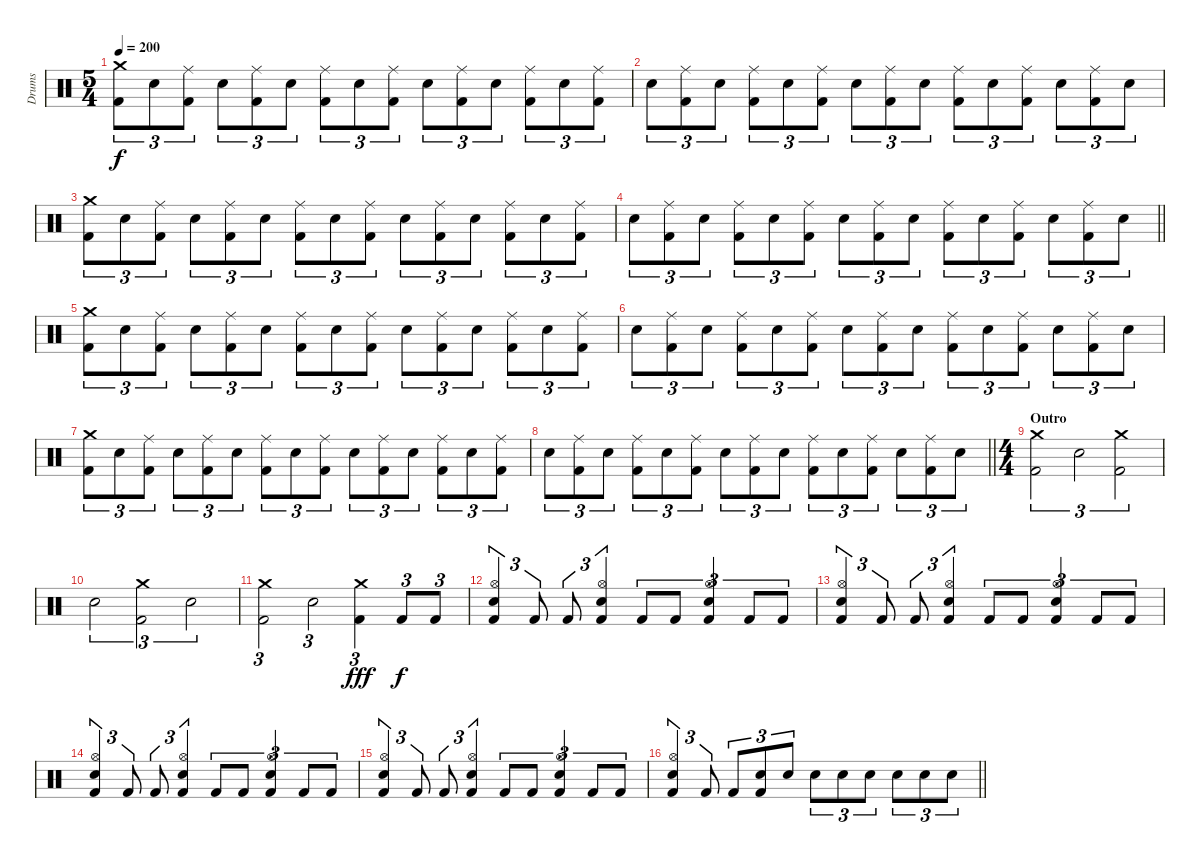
\track ("Drums" "Drums") {instrument percussion}
\staff {score}
\articulation defaults
\ts (5 4)
\tempo 200
\clef neutral
\ks c
("Crash medium (hit)" "Kick (hit) 2").8{tu (3 2) dy f} "Electric Snare (hit)".8{tu (3 2)} ("Ride (middle)" "Kick (hit) 2").8{tu (3 2)} "Electric Snare (hit)".8{tu (3 2)} ("Ride (middle)" "Kick (hit) 2").8{tu (3 2)} "Electric Snare (hit)".8{tu (3 2)} ("Ride (middle)" "Kick (hit) 2").8{tu (3 2)} "Electric Snare (hit)".8{tu (3 2)} ("Ride (middle)" "Kick (hit) 2").8{tu (3 2)} "Electric Snare (hit)".8{tu (3 2)} ("Ride (middle)" "Kick (hit) 2").8{tu (3 2)} "Electric Snare (hit)".8{tu (3 2)} ("Ride (middle)" "Kick (hit) 2").8{tu (3 2)} "Electric Snare (hit)".8{tu (3 2)} ("Ride (middle)" "Kick (hit) 2").8{tu (3 2)} |
"Electric Snare (hit)".8{tu (3 2)} ("Ride (middle)" "Kick (hit) 2").8{tu (3 2)} "Electric Snare (hit)".8{tu (3 2)} ("Ride (middle)" "Kick (hit) 2").8{tu (3 2)} "Electric Snare (hit)".8{tu (3 2)} ("Ride (middle)" "Kick (hit) 2").8{tu (3 2)} "Electric Snare (hit)".8{tu (3 2)} ("Ride (middle)" "Kick (hit) 2").8{tu (3 2)} "Electric Snare (hit)".8{tu (3 2)} ("Ride (middle)" "Kick (hit) 2").8{tu (3 2)} "Electric Snare (hit)".8{tu (3 2)} ("Ride (middle)" "Kick (hit) 2").8{tu (3 2)} "Electric Snare (hit)".8{tu (3 2)} ("Ride (middle)" "Kick (hit) 2").8{tu (3 2)} "Electric Snare (hit)".8{tu (3 2)} |
("Crash medium (hit)" "Kick (hit) 2").8{tu (3 2)} "Electric Snare (hit)".8{tu (3 2)} ("Ride (middle)" "Kick (hit) 2").8{tu (3 2)} "Electric Snare (hit)".8{tu (3 2)} ("Ride (middle)" "Kick (hit) 2").8{tu (3 2)} "Electric Snare (hit)".8{tu (3 2)} ("Ride (middle)" "Kick (hit) 2").8{tu (3 2)} "Electric Snare (hit)".8{tu (3 2)} ("Ride (middle)" "Kick (hit) 2").8{tu (3 2)} "Electric Snare (hit)".8{tu (3 2)} ("Ride (middle)" "Kick (hit) 2").8{tu (3 2)} "Electric Snare (hit)".8{tu (3 2)} ("Ride (middle)" "Kick (hit) 2").8{tu (3 2)} "Electric Snare (hit)".8{tu (3 2)} ("Ride (middle)" "Kick (hit) 2").8{tu (3 2)} |
\barLineRight lightlight "Electric Snare (hit)".8{tu (3 2)}
("Ride (middle)" "Kick (hit) 2").8{tu (3 2)} "Electric Snare (hit)".8{tu (3 2)} ("Ride (middle)" "Kick (hit) 2").8{tu (3 2)} "Electric Snare (hit)".8{tu (3 2)} ("Ride (middle)" "Kick (hit) 2").8{tu (3 2)} "Electric Snare (hit)".8{tu (3 2)} ("Ride (middle)" "Kick (hit) 2").8{tu (3 2)} "Electric Snare (hit)".8{tu (3 2)} ("Ride (middle)" "Kick (hit) 2").8{tu (3 2)} "Electric Snare (hit)".8{tu (3 2)} ("Ride (middle)" "Kick (hit) 2").8{tu (3 2)} "Electric Snare (hit)".8{tu (3 2)} ("Ride (middle)" "Kick (hit) 2").8{tu (3 2)} "Electric Snare (hit)".8{tu (3 2)} |
("Crash medium (hit)" "Kick (hit) 2").8{tu (3 2)} "Electric Snare (hit)".8{tu (3 2)} ("Ride (middle)" "Kick (hit) 2").8{tu (3 2)} "Electric Snare (hit)".8{tu (3 2)} ("Ride (middle)" "Kick (hit) 2").8{tu (3 2)} "Electric Snare (hit)".8{tu (3 2)} ("Ride (middle)" "Kick (hit) 2").8{tu (3 2)} "Electric Snare (hit)".8{tu (3 2)} ("Ride (middle)" "Kick (hit) 2").8{tu (3 2)} "Electric Snare (hit)".8{tu (3 2)} ("Ride (middle)" "Kick (hit) 2").8{tu (3 2)} "Electric Snare (hit)".8{tu (3 2)} ("Ride (middle)" "Kick (hit) 2").8{tu (3 2)} "Electric Snare (hit)".8{tu (3 2)} ("Ride (middle)" "Kick (hit) 2").8{tu (3 2)} |
"Electric Snare (hit)".8{tu (3 2)} ("Ride (middle)" "Kick (hit) 2").8{tu (3 2)} "Electric Snare (hit)".8{tu (3 2)} ("Ride (middle)" "Kick (hit) 2").8{tu (3 2)} "Electric Snare (hit)".8{tu (3 2)} ("Ride (middle)" "Kick (hit) 2").8{tu (3 2)} "Electric Snare (hit)".8{tu (3 2)} ("Ride (middle)" "Kick (hit) 2").8{tu (3 2)} "Electric Snare (hit)".8{tu (3 2)} ("Ride (middle)" "Kick (hit) 2").8{tu (3 2)} "Electric Snare (hit)".8{tu (3 2)} ("Ride (middle)" "Kick (hit) 2").8{tu (3 2)} "Electric Snare (hit)".8{tu (3 2)} ("Ride (middle)" "Kick (hit) 2").8{tu (3 2)} "Electric Snare (hit)".8{tu (3 2)} |
("Crash medium (hit)" "Kick (hit) 2").8{tu (3 2)} "Electric Snare (hit)".8{tu (3 2)} ("Ride (middle)" "Kick (hit) 2").8{tu (3 2)} "Electric Snare (hit)".8{tu (3 2)} ("Ride (middle)" "Kick (hit) 2").8{tu (3 2)} "Electric Snare (hit)".8{tu (3 2)} ("Ride (middle)" "Kick (hit) 2").8{tu (3 2)} "Electric Snare (hit)".8{tu (3 2)} ("Ride (middle)" "Kick (hit) 2").8{tu (3 2)} "Electric Snare (hit)".8{tu (3 2)} ("Ride (middle)" "Kick (hit) 2").8{tu (3 2)} "Electric Snare (hit)".8{tu (3 2)} ("Ride (middle)" "Kick (hit) 2").8{tu (3 2)} "Electric Snare (hit)".8{tu (3 2)} ("Ride (middle)" "Kick (hit) 2").8{tu (3 2)} |
\barLineRight lightlight "Electric Snare (hit)".8{tu (3 2)}
("Ride (middle)" "Kick (hit) 2").8{tu (3 2)} "Electric Snare (hit)".8{tu (3 2)} ("Ride (middle)" "Kick (hit) 2").8{tu (3 2)} "Electric Snare (hit)".8{tu (3 2)} ("Ride (middle)" "Kick (hit) 2").8{tu (3 2)} "Electric Snare (hit)".8{tu (3 2)} ("Ride (middle)" "Kick (hit) 2").8{tu (3 2)} "Electric Snare (hit)".8{tu (3 2)} ("Ride (middle)" "Kick (hit) 2").8{tu (3 2)} "Electric Snare (hit)".8{tu (3 2)} ("Ride (middle)" "Kick (hit) 2").8{tu (3 2)} "Electric Snare (hit)".8{tu (3 2)} ("Ride (middle)" "Kick (hit) 2").8{tu (3 2)} "Electric Snare (hit)".8{tu (3 2)} |
\ts (4 4)
\section ("" "Outro")
("Crash medium (hit)" "Kick (hit) 2").2{tu (3 2)} "Electric Snare (hit)".2{tu (3 2)} ("Crash medium (hit)" "Kick (hit) 2").2{tu (3 2)} |
"Electric Snare (hit)".2{tu (3 2)} ("Crash medium (hit)" "Kick (hit) 2").2{tu (3 2)} "Electric Snare (hit)".2{tu (3 2)} |
("Crash medium (hit)" "Kick (hit) 2").2{tu (3 2)} "Electric Snare (hit)".2{tu (3 2)} ("Crash medium (hit)" "Kick (hit) 2").4{tu (3 2) dy fff} "Kick (hit) 2".8{tu (3 2) dy f} "Kick (hit) 2".8{tu (3 2)} |
("Hi-Hat (open)" "Snare (hit) 2" "Kick (hit) 2").4{tu (3 2)} "Kick (hit) 2".8{tu (3 2)} "Kick (hit) 2".8{tu (3 2)} ("Hi-Hat (open)" "Snare (hit) 2" "Kick (hit) 2").4{tu (3 2)} "Kick (hit) 2".8{tu (3 2)} "Kick (hit) 2".8{tu (3 2)} ("Hi-Hat (open)" "Snare (hit) 2" "Kick (hit) 2").4{tu (3 2)} "Kick (hit) 2".8{tu (3 2)} "Kick (hit) 2".8{tu (3 2)} |
("Hi-Hat (open)" "Snare (hit) 2" "Kick (hit) 2").4{tu (3 2)} "Kick (hit) 2".8{tu (3 2)} "Kick (hit) 2".8{tu (3 2)} ("Hi-Hat (open)" "Snare (hit) 2" "Kick (hit) 2").4{tu (3 2)} "Kick (hit) 2".8{tu (3 2)} "Kick (hit) 2".8{tu (3 2)} ("Hi-Hat (open)" "Snare (hit) 2" "Kick (hit) 2").4{tu (3 2)} "Kick (hit) 2".8{tu (3 2)} "Kick (hit) 2".8{tu (3 2)} |
("Hi-Hat (open)" "Snare (hit) 2" "Kick (hit) 2").4{tu (3 2)} "Kick (hit) 2".8{tu (3 2)} "Kick (hit) 2".8{tu (3 2)} ("Hi-Hat (open)" "Snare (hit) 2" "Kick (hit) 2").4{tu (3 2)} "Kick (hit) 2".8{tu (3 2)} "Kick (hit) 2".8{tu (3 2)} ("Hi-Hat (open)" "Snare (hit) 2" "Kick (hit) 2").4{tu (3 2)} "Kick (hit) 2".8{tu (3 2)} "Kick (hit) 2".8{tu (3 2)} |
("Hi-Hat (open)" "Snare (hit) 2" "Kick (hit) 2").4{tu (3 2)} "Kick (hit) 2".8{tu (3 2)} "Kick (hit) 2".8{tu (3 2)} ("Hi-Hat (open)" "Snare (hit) 2" "Kick (hit) 2").4{tu (3 2)} "Kick (hit) 2".8{tu (3 2)} "Kick (hit) 2".8{tu (3 2)} ("Hi-Hat (open)" "Snare (hit) 2" "Kick (hit) 2").4{tu (3 2)} "Kick (hit) 2".8{tu (3 2)} "Kick (hit) 2".8{tu (3 2)} |
\barLineRight lightlight
("Hi-Hat (open)" "Snare (hit) 2" "Kick (hit) 2").4{tu (3 2)} "Kick (hit) 2".8{tu (3 2)} "Kick (hit) 2".8{tu (3 2)} ("Snare (hit) 2" "Kick (hit) 2").8{tu (3 2)} "Snare (hit) 2".8{tu (3 2)} "Snare (hit) 2".8{tu (3 2)} "Snare (hit) 2".8{tu (3 2)} "Snare (hit) 2".8{tu (3 2)} "Snare (hit) 2".8{tu (3 2)} "Snare (hit) 2".8{tu (3 2)} "Snare (hit) 2".8{tu (3 2)}
